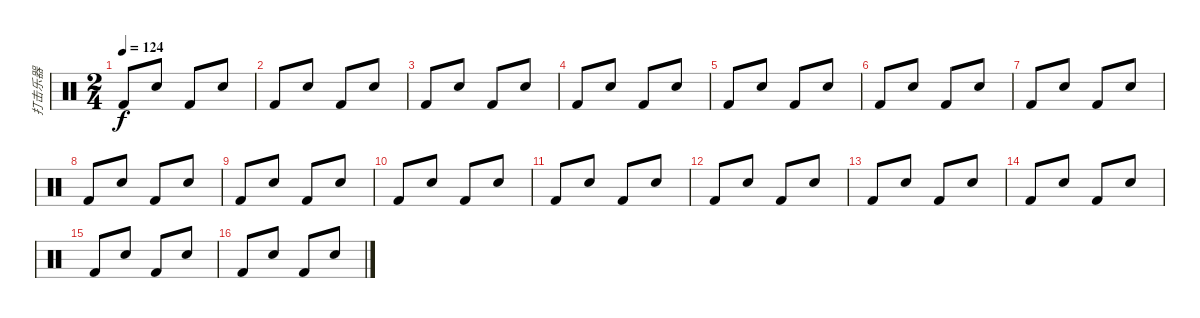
\track ("打击乐器" "打击乐器") {instrument percussion}
\staff {score}
\articulation defaults
\ts (2 4)
\tempo 124
\clef neutral
\ks c "Kick (hit) 2".8{dy f} "Snare (hit) 2".8 "Kick (hit) 2".8 "Snare (hit) 2".8
|
"Kick (hit) 2".8 "Snare (hit) 2".8 "Kick (hit) 2".8 "Snare (hit) 2".8 |
"Kick (hit) 2".8 "Snare (hit) 2".8 "Kick (hit) 2".8 "Snare (hit) 2".8 |
"Kick (hit) 2".8 "Snare (hit) 2".8 "Kick (hit) 2".8 "Snare (hit) 2".8 |
"Kick (hit) 2".8 "Snare (hit) 2".8 "Kick (hit) 2".8 "Snare (hit) 2".8 |
"Kick (hit) 2".8 "Snare (hit) 2".8 "Kick (hit) 2".8 "Snare (hit) 2".8 |
"Kick (hit) 2".8 "Snare (hit) 2".8 "Kick (hit) 2".8 "Snare (hit) 2".8 |
"Kick (hit) 2".8 "Snare (hit) 2".8 "Kick (hit) 2".8 "Snare (hit) 2".8 |
"Kick (hit) 2".8 "Snare (hit) 2".8 "Kick (hit) 2".8 "Snare (hit) 2".8 |
"Kick (hit) 2".8 "Snare (hit) 2".8 "Kick (hit) 2".8 "Snare (hit) 2".8 |
"Kick (hit) 2".8 "Snare (hit) 2".8 "Kick (hit) 2".8 "Snare (hit) 2".8 |
"Kick (hit) 2".8 "Snare (hit) 2".8 "Kick (hit) 2".8 "Snare (hit) 2".8 |
"Kick (hit) 2".8 "Snare (hit) 2".8 "Kick (hit) 2".8 "Snare (hit) 2".8 |
"Kick (hit) 2".8 "Snare (hit) 2".8 "Kick (hit) 2".8 "Snare (hit) 2".8 |
"Kick (hit) 2".8 "Snare (hit) 2".8 "Kick (hit) 2".8 "Snare (hit) 2".8 |
"Kick (hit) 2".8 "Snare (hit) 2".8 "Kick (hit) 2".8 "Snare (hit) 2".8
